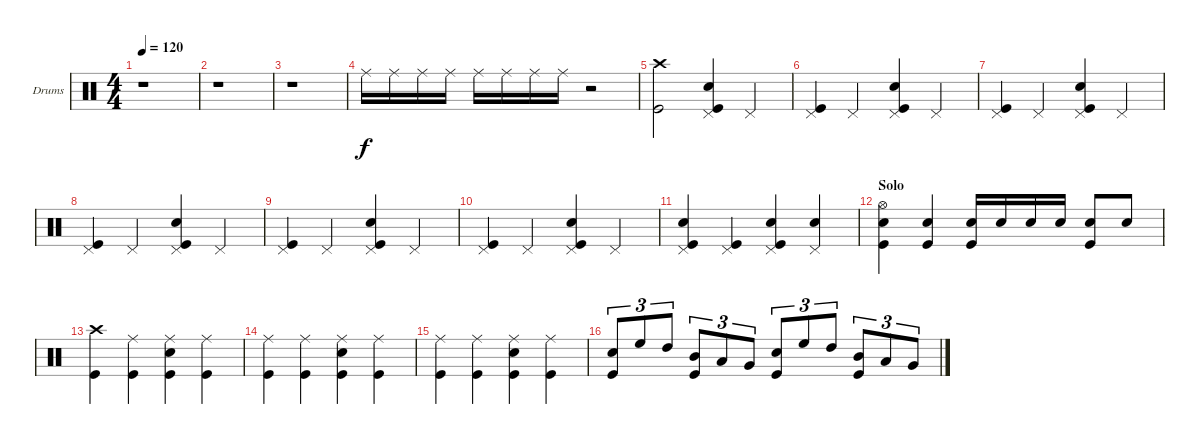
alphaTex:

\bracketExtendMode groupsimilarinstruments
\firstSystemTrackNameOrientation horizontal
\otherSystemsTrackNameOrientation horizontal
\track ("Drumkit" "Drums") {instrument percussion}
\staff {score}
\articulation defaults
\ts (4 4)
\tempo 120
\clef neutral
\ks c
r.1{dy f} |
r.1 |
r.1 |
"Ride (middle)".16 "Ride (middle)".16 "Ride (middle)".16 "Ride (middle)".16 "Ride (middle)".16 "Ride (middle)".16 "Ride (middle)".16 "Ride (middle)".16 r.2 |
("Crash high (hit)" "Kick (hit)").2 ("Pedal Hi-Hat (hit)" "Snare (hit) 2" "Kick (hit)").4 "Pedal Hi-Hat (hit)".4 |
("Pedal Hi-Hat (hit)" "Kick (hit)").4 "Pedal Hi-Hat (hit)".4 ("Pedal Hi-Hat (hit)" "Snare (hit) 2" "Kick (hit)").4 "Pedal Hi-Hat (hit)".4 |
("Pedal Hi-Hat (hit)" "Kick (hit)").4 "Pedal Hi-Hat (hit)".4 ("Pedal Hi-Hat (hit)" "Snare (hit) 2" "Kick (hit)").4 "Pedal Hi-Hat (hit)".4 |
("Pedal Hi-Hat (hit)" "Kick (hit)").4 "Pedal Hi-Hat (hit)".4 ("Pedal Hi-Hat (hit)" "Snare (hit) 2" "Kick (hit)").4 "Pedal Hi-Hat (hit)".4 |
("Pedal Hi-Hat (hit)" "Kick (hit)").4 "Pedal Hi-Hat (hit)".4 ("Pedal Hi-Hat (hit)" "Snare (hit) 2" "Kick (hit)").4 "Pedal Hi-Hat (hit)".4 |
("Pedal Hi-Hat (hit)" "Kick (hit)").4 "Pedal Hi-Hat (hit)".4 ("Pedal Hi-Hat (hit)" "Snare (hit) 2" "Kick (hit)").4 "Pedal Hi-Hat (hit)".4 |
("Pedal Hi-Hat (hit)" "Snare (hit) 2" "Kick (hit)").4 ("Pedal Hi-Hat (hit)" "Kick (hit)").4 ("Pedal Hi-Hat (hit)" "Snare (hit) 2" "Kick (hit)").4 ("Pedal Hi-Hat (hit)" "Snare (hit) 2").4 |
\section ("" "Solo")
("Hi-Hat (open)" "Snare (hit) 2" "Kick (hit)").4 ("Snare (hit) 2" "Kick (hit)").4 ("Snare (hit) 2" "Kick (hit)").16 "Snare (hit) 2".16 "Snare (hit) 2".16 "Snare (hit) 2".16 ("Snare (hit) 2" "Kick (hit)").8 "Snare (hit) 2".8 |
("Crash high (hit)" "Kick (hit)").4 ("Ride (middle)" "Kick (hit)").4 ("Ride (middle)" "Snare (hit) 2" "Kick (hit)").4 ("Ride (middle)" "Kick (hit)").4 |
("Ride (middle)" "Kick (hit)").4 ("Ride (middle)" "Kick (hit)").4 ("Ride (middle)" "Snare (hit) 2" "Kick (hit)").4 ("Ride (middle)" "Kick (hit)").4 |
("Ride (middle)" "Kick (hit)").4 ("Ride (middle)" "Kick (hit)").4 ("Ride (middle)" "Snare (hit) 2" "Kick (hit)").4 ("Ride (middle)" "Kick (hit)").4 |
("Snare (hit) 2" "Kick (hit)").8{tu (3 2)} "High Floor Tom (hit)".8{tu (3 2)} "High Tom (hit)".8{tu (3 2)} ("Mid Tom (hit)" "Kick (hit)").8{tu (3 2)} "Low Tom (hit)".8{tu (3 2)} "Very Low Tom (hit)".8{tu (3 2)} ("Snare (hit) 2" "Kick (hit)").8{tu (3 2)} "High Floor Tom (hit)".8{tu (3 2)} "High Tom (hit)".8{tu (3 2)} ("Mid Tom (hit)" "Kick (hit)").8{tu (3 2)} "Low Tom (hit)".8{tu (3 2)} "Very Low Tom (hit)".8{tu (3 2)}
